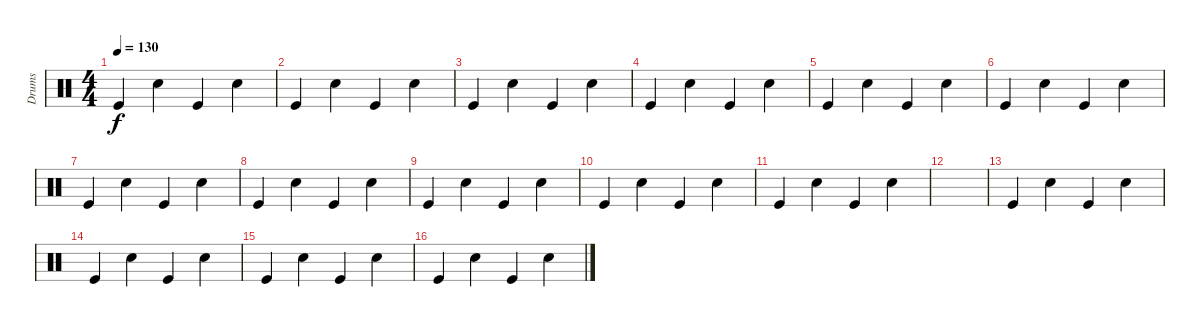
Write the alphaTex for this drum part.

\track ("Drums" "Drums") {instrument percussion}
\staff {score}
\articulation defaults
\ts (4 4)
\tempo 130
\clef neutral
\ks c "Kick (hit)".4{dy f} "Snare (hit) 2".4 "Kick (hit)".4 "Snare (hit) 2".4
|
"Kick (hit)".4 "Snare (hit) 2".4 "Kick (hit)".4 "Snare (hit) 2".4 |
"Kick (hit)".4 "Snare (hit) 2".4 "Kick (hit)".4 "Snare (hit) 2".4 |
"Kick (hit)".4 "Snare (hit) 2".4 "Kick (hit)".4 "Snare (hit) 2".4 |
"Kick (hit)".4 "Snare (hit) 2".4 "Kick (hit)".4 "Snare (hit) 2".4 |
"Kick (hit)".4 "Snare (hit) 2".4 "Kick (hit)".4 "Snare (hit) 2".4 |
"Kick (hit)".4 "Snare (hit) 2".4 "Kick (hit)".4 "Snare (hit) 2".4 |
"Kick (hit)".4 "Snare (hit) 2".4 "Kick (hit)".4 "Snare (hit) 2".4 |
"Kick (hit)".4 "Snare (hit) 2".4 "Kick (hit)".4 "Snare (hit) 2".4 |
"Kick (hit)".4 "Snare (hit) 2".4 "Kick (hit)".4 "Snare (hit) 2".4 |
"Kick (hit)".4 "Snare (hit) 2".4 "Kick (hit)".4 "Snare (hit) 2".4 |
|
"Kick (hit)".4 "Snare (hit) 2".4 "Kick (hit)".4 "Snare (hit) 2".4 |
"Kick (hit)".4 "Snare (hit) 2".4 "Kick (hit)".4 "Snare (hit) 2".4 |
"Kick (hit)".4 "Snare (hit) 2".4 "Kick (hit)".4 "Snare (hit) 2".4 |
"Kick (hit)".4 "Snare (hit) 2".4 "Kick (hit)".4 "Snare (hit) 2".4
